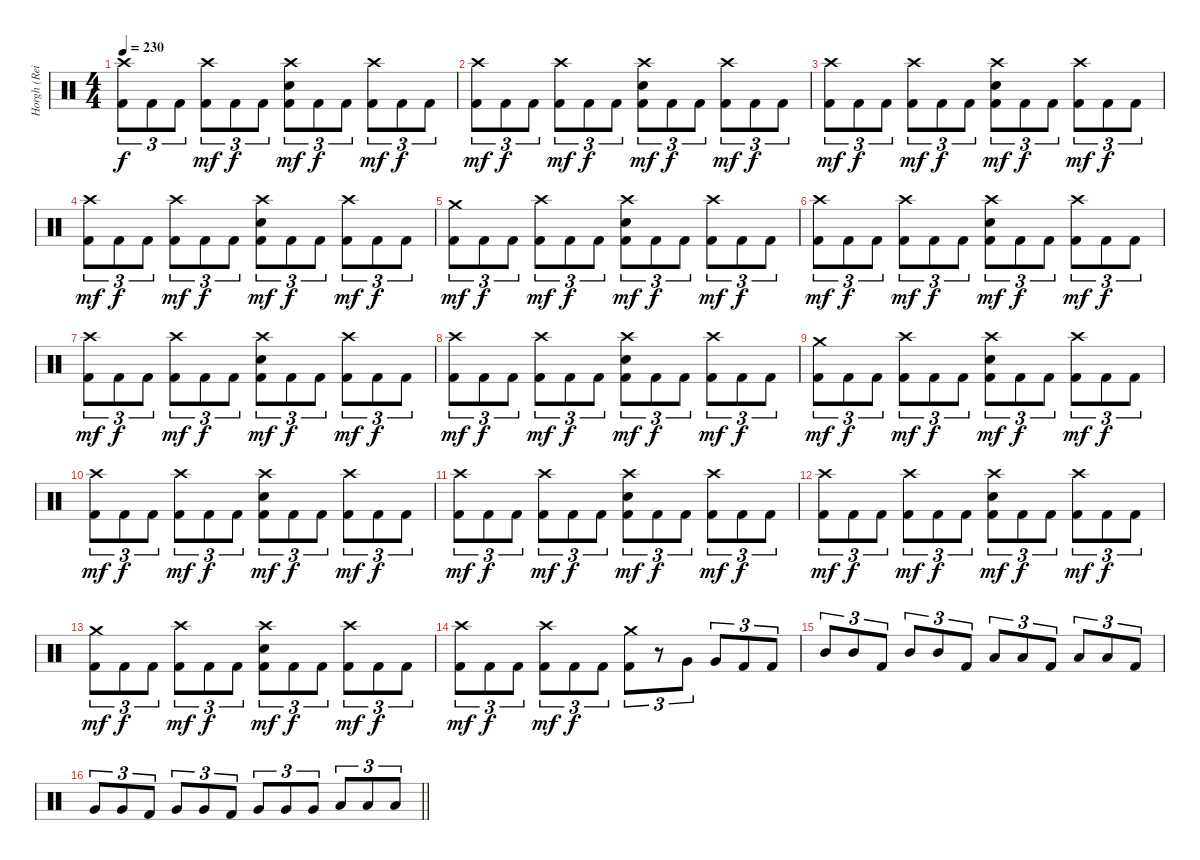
\track ("Horgh (Reidar Horghagen)" "Horgh (Rei") {instrument percussion}
\staff {score}
\articulation defaults
\ts (4 4)
\tempo 230
\clef neutral
\ks c
("Crash high (hit)" "Kick (hit) 2").8{tu (3 2) dy f} "Kick (hit) 2".8{tu (3 2)} "Kick (hit) 2".8{tu (3 2)} ("Crash high (hit)" "Kick (hit) 2").8{tu (3 2) dy mf} "Kick (hit) 2".8{tu (3 2) dy f} "Kick (hit) 2".8{tu (3 2)} ("Crash high (hit)" "Snare (hit) 2" "Kick (hit) 2").8{tu (3 2) dy mf} "Kick (hit) 2".8{tu (3 2) dy f} "Kick (hit) 2".8{tu (3 2)} ("Crash high (hit)" "Kick (hit) 2").8{tu (3 2) dy mf} "Kick (hit) 2".8{tu (3 2) dy f} "Kick (hit) 2".8{tu (3 2)} |
("Crash high (hit)" "Kick (hit) 2").8{tu (3 2) dy mf} "Kick (hit) 2".8{tu (3 2) dy f} "Kick (hit) 2".8{tu (3 2)} ("Crash high (hit)" "Kick (hit) 2").8{tu (3 2) dy mf} "Kick (hit) 2".8{tu (3 2) dy f} "Kick (hit) 2".8{tu (3 2)} ("Crash high (hit)" "Snare (hit) 2" "Kick (hit) 2").8{tu (3 2) dy mf} "Kick (hit) 2".8{tu (3 2) dy f} "Kick (hit) 2".8{tu (3 2)} ("Crash high (hit)" "Kick (hit) 2").8{tu (3 2) dy mf} "Kick (hit) 2".8{tu (3 2) dy f} "Kick (hit) 2".8{tu (3 2)} |
("Crash high (hit)" "Kick (hit) 2").8{tu (3 2) dy mf} "Kick (hit) 2".8{tu (3 2) dy f} "Kick (hit) 2".8{tu (3 2)} ("Crash high (hit)" "Kick (hit) 2").8{tu (3 2) dy mf} "Kick (hit) 2".8{tu (3 2) dy f} "Kick (hit) 2".8{tu (3 2)} ("Crash high (hit)" "Snare (hit) 2" "Kick (hit) 2").8{tu (3 2) dy mf} "Kick (hit) 2".8{tu (3 2) dy f} "Kick (hit) 2".8{tu (3 2)} ("Crash high (hit)" "Kick (hit) 2").8{tu (3 2) dy mf} "Kick (hit) 2".8{tu (3 2) dy f} "Kick (hit) 2".8{tu (3 2)} |
("Crash high (hit)" "Kick (hit) 2").8{tu (3 2) dy mf} "Kick (hit) 2".8{tu (3 2) dy f} "Kick (hit) 2".8{tu (3 2)} ("Crash high (hit)" "Kick (hit) 2").8{tu (3 2) dy mf} "Kick (hit) 2".8{tu (3 2) dy f} "Kick (hit) 2".8{tu (3 2)} ("Crash high (hit)" "Snare (hit) 2" "Kick (hit) 2").8{tu (3 2) dy mf} "Kick (hit) 2".8{tu (3 2) dy f} "Kick (hit) 2".8{tu (3 2)} ("Crash high (hit)" "Kick (hit) 2").8{tu (3 2) dy mf} "Kick (hit) 2".8{tu (3 2) dy f} "Kick (hit) 2".8{tu (3 2)} |
("Crash medium (hit)" "Kick (hit) 2").8{tu (3 2) dy mf} "Kick (hit) 2".8{tu (3 2) dy f} "Kick (hit) 2".8{tu (3 2)} ("Crash high (hit)" "Kick (hit) 2").8{tu (3 2) dy mf} "Kick (hit) 2".8{tu (3 2) dy f} "Kick (hit) 2".8{tu (3 2)} ("Crash high (hit)" "Snare (hit) 2" "Kick (hit) 2").8{tu (3 2) dy mf} "Kick (hit) 2".8{tu (3 2) dy f} "Kick (hit) 2".8{tu (3 2)} ("Crash high (hit)" "Kick (hit) 2").8{tu (3 2) dy mf} "Kick (hit) 2".8{tu (3 2) dy f} "Kick (hit) 2".8{tu (3 2)} |
("Crash high (hit)" "Kick (hit) 2").8{tu (3 2) dy mf} "Kick (hit) 2".8{tu (3 2) dy f} "Kick (hit) 2".8{tu (3 2)} ("Crash high (hit)" "Kick (hit) 2").8{tu (3 2) dy mf} "Kick (hit) 2".8{tu (3 2) dy f} "Kick (hit) 2".8{tu (3 2)} ("Crash high (hit)" "Snare (hit) 2" "Kick (hit) 2").8{tu (3 2) dy mf} "Kick (hit) 2".8{tu (3 2) dy f} "Kick (hit) 2".8{tu (3 2)} ("Crash high (hit)" "Kick (hit) 2").8{tu (3 2) dy mf} "Kick (hit) 2".8{tu (3 2) dy f} "Kick (hit) 2".8{tu (3 2)} |
("Crash high (hit)" "Kick (hit) 2").8{tu (3 2) dy mf} "Kick (hit) 2".8{tu (3 2) dy f} "Kick (hit) 2".8{tu (3 2)} ("Crash high (hit)" "Kick (hit) 2").8{tu (3 2) dy mf} "Kick (hit) 2".8{tu (3 2) dy f} "Kick (hit) 2".8{tu (3 2)} ("Crash high (hit)" "Snare (hit) 2" "Kick (hit) 2").8{tu (3 2) dy mf} "Kick (hit) 2".8{tu (3 2) dy f} "Kick (hit) 2".8{tu (3 2)} ("Crash high (hit)" "Kick (hit) 2").8{tu (3 2) dy mf} "Kick (hit) 2".8{tu (3 2) dy f} "Kick (hit) 2".8{tu (3 2)} |
("Crash high (hit)" "Kick (hit) 2").8{tu (3 2) dy mf} "Kick (hit) 2".8{tu (3 2) dy f} "Kick (hit) 2".8{tu (3 2)} ("Crash high (hit)" "Kick (hit) 2").8{tu (3 2) dy mf} "Kick (hit) 2".8{tu (3 2) dy f} "Kick (hit) 2".8{tu (3 2)} ("Crash high (hit)" "Snare (hit) 2" "Kick (hit) 2").8{tu (3 2) dy mf} "Kick (hit) 2".8{tu (3 2) dy f} "Kick (hit) 2".8{tu (3 2)} ("Crash high (hit)" "Kick (hit) 2").8{tu (3 2) dy mf} "Kick (hit) 2".8{tu (3 2) dy f} "Kick (hit) 2".8{tu (3 2)} |
("Crash medium (hit)" "Kick (hit) 2").8{tu (3 2) dy mf} "Kick (hit) 2".8{tu (3 2) dy f} "Kick (hit) 2".8{tu (3 2)} ("Crash high (hit)" "Kick (hit) 2").8{tu (3 2) dy mf} "Kick (hit) 2".8{tu (3 2) dy f} "Kick (hit) 2".8{tu (3 2)} ("Crash high (hit)" "Snare (hit) 2" "Kick (hit) 2").8{tu (3 2) dy mf} "Kick (hit) 2".8{tu (3 2) dy f} "Kick (hit) 2".8{tu (3 2)} ("Crash high (hit)" "Kick (hit) 2").8{tu (3 2) dy mf} "Kick (hit) 2".8{tu (3 2) dy f} "Kick (hit) 2".8{tu (3 2)} |
("Crash high (hit)" "Kick (hit) 2").8{tu (3 2) dy mf} "Kick (hit) 2".8{tu (3 2) dy f} "Kick (hit) 2".8{tu (3 2)} ("Crash high (hit)" "Kick (hit) 2").8{tu (3 2) dy mf} "Kick (hit) 2".8{tu (3 2) dy f} "Kick (hit) 2".8{tu (3 2)} ("Crash high (hit)" "Snare (hit) 2" "Kick (hit) 2").8{tu (3 2) dy mf} "Kick (hit) 2".8{tu (3 2) dy f} "Kick (hit) 2".8{tu (3 2)} ("Crash high (hit)" "Kick (hit) 2").8{tu (3 2) dy mf} "Kick (hit) 2".8{tu (3 2) dy f} "Kick (hit) 2".8{tu (3 2)} |
("Crash high (hit)" "Kick (hit) 2").8{tu (3 2) dy mf} "Kick (hit) 2".8{tu (3 2) dy f} "Kick (hit) 2".8{tu (3 2)} ("Crash high (hit)" "Kick (hit) 2").8{tu (3 2) dy mf} "Kick (hit) 2".8{tu (3 2) dy f} "Kick (hit) 2".8{tu (3 2)} ("Crash high (hit)" "Snare (hit) 2" "Kick (hit) 2").8{tu (3 2) dy mf} "Kick (hit) 2".8{tu (3 2) dy f} "Kick (hit) 2".8{tu (3 2)} ("Crash high (hit)" "Kick (hit) 2").8{tu (3 2) dy mf} "Kick (hit) 2".8{tu (3 2) dy f} "Kick (hit) 2".8{tu (3 2)} |
("Crash high (hit)" "Kick (hit) 2").8{tu (3 2) dy mf} "Kick (hit) 2".8{tu (3 2) dy f} "Kick (hit) 2".8{tu (3 2)} ("Crash high (hit)" "Kick (hit) 2").8{tu (3 2) dy mf} "Kick (hit) 2".8{tu (3 2) dy f} "Kick (hit) 2".8{tu (3 2)} ("Crash high (hit)" "Snare (hit) 2" "Kick (hit) 2").8{tu (3 2) dy mf} "Kick (hit) 2".8{tu (3 2) dy f} "Kick (hit) 2".8{tu (3 2)} ("Crash high (hit)" "Kick (hit) 2").8{tu (3 2) dy mf} "Kick (hit) 2".8{tu (3 2) dy f} "Kick (hit) 2".8{tu (3 2)} |
("Crash medium (hit)" "Kick (hit) 2").8{tu (3 2) dy mf} "Kick (hit) 2".8{tu (3 2) dy f} "Kick (hit) 2".8{tu (3 2)} ("Crash high (hit)" "Kick (hit) 2").8{tu (3 2) dy mf} "Kick (hit) 2".8{tu (3 2) dy f} "Kick (hit) 2".8{tu (3 2)} ("Crash high (hit)" "Snare (hit) 2" "Kick (hit) 2").8{tu (3 2) dy mf} "Kick (hit) 2".8{tu (3 2) dy f} "Kick (hit) 2".8{tu (3 2)} ("Crash high (hit)" "Kick (hit) 2").8{tu (3 2) dy mf} "Kick (hit) 2".8{tu (3 2) dy f} "Kick (hit) 2".8{tu (3 2)} |
("Crash high (hit)" "Kick (hit) 2").8{tu (3 2) dy mf} "Kick (hit) 2".8{tu (3 2) dy f} "Kick (hit) 2".8{tu (3 2)} ("Crash high (hit)" "Kick (hit) 2").8{tu (3 2) dy mf} "Kick (hit) 2".8{tu (3 2) dy f} "Kick (hit) 2".8{tu (3 2)} ("Crash medium (hit)" "Kick (hit) 2").8{tu (3 2)} r.8{tu (3 2)} "Very Low Tom (hit)".8{tu (3 2)} "Very Low Tom (hit)".8{tu (3 2)} "Kick (hit) 2".8{tu (3 2)} "Kick (hit) 2".8{tu (3 2)} |
"Mid Tom (hit)".8{tu (3 2)} "Mid Tom (hit)".8{tu (3 2)} "Kick (hit) 2".8{tu (3 2)} "Mid Tom (hit)".8{tu (3 2)} "Mid Tom (hit)".8{tu (3 2)} "Kick (hit) 2".8{tu (3 2)} "Low Tom (hit)".8{tu (3 2)} "Low Tom (hit)".8{tu (3 2)} "Kick (hit) 2".8{tu (3 2)} "Low Tom (hit)".8{tu (3 2)} "Low Tom (hit)".8{tu (3 2)} "Kick (hit) 2".8{tu (3 2)} |
\barLineRight lightlight "Very Low Tom (hit)".8{tu (3 2)} "Very Low Tom (hit)".8{tu (3 2)} "Kick (hit) 2".8{tu (3 2)} "Very Low Tom (hit)".8{tu (3 2)} "Very Low Tom (hit)".8{tu (3 2)} "Kick (hit) 2".8{tu (3 2)} "Very Low Tom (hit)".8{tu (3 2)} "Very Low Tom (hit)".8{tu (3 2)} "Very Low Tom (hit)".8{tu (3 2)} "Low Floor Tom (hit)".8{tu (3 2)} "Low Floor Tom (hit)".8{tu (3 2)} "Low Floor Tom (hit)".8{tu (3 2)}
